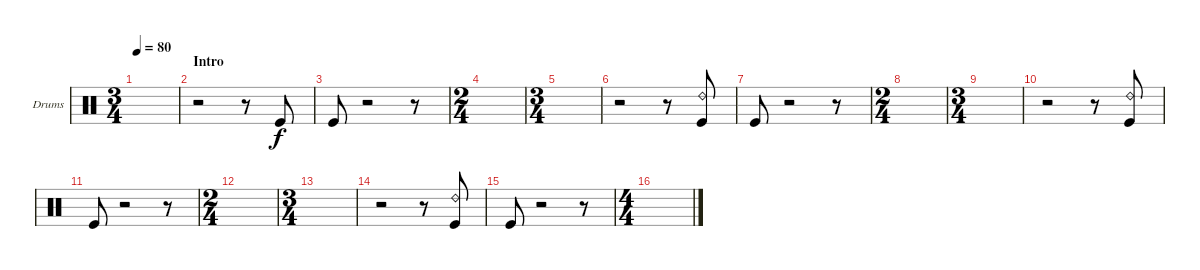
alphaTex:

\bracketExtendMode groupsimilarinstruments
\firstSystemTrackNameOrientation horizontal
\otherSystemsTrackNameOrientation horizontal
\track ("Drums" "Drums") {instrument percussion}
\staff {score}
\articulation defaults
\ts (3 4)
\beaming (8 2 2 2)
\tempo 80
\clef neutral
\ks c
|
\section ("" "Intro")
r.2 r.8 "Kick (hit)".8 |
"Kick (hit)".8 r.2 r.8 |
\ts (2 4)
\beaming (8 2 2)
|
\ts (3 4)
\beaming (8 2 2 2)
|
r.2 r.8 ("Kick (hit)" "Ride (bell) 2").8 |
"Kick (hit)".8 r.2 r.8 |
\ts (2 4)
\beaming (8 2 2)
|
\ts (3 4)
\beaming (8 2 2 2)
|
r.2 r.8 ("Kick (hit)" "Ride (bell) 2").8 |
"Kick (hit)".8 r.2 r.8 |
\ts (2 4)
\beaming (8 2 2)
|
\ts (3 4)
\beaming (8 2 2 2)
|
r.2 r.8 ("Kick (hit)" "Ride (bell) 2").8 |
"Kick (hit)".8 r.2 r.8 |
\ts (4 4)
\beaming (8 2 2 2 2)
